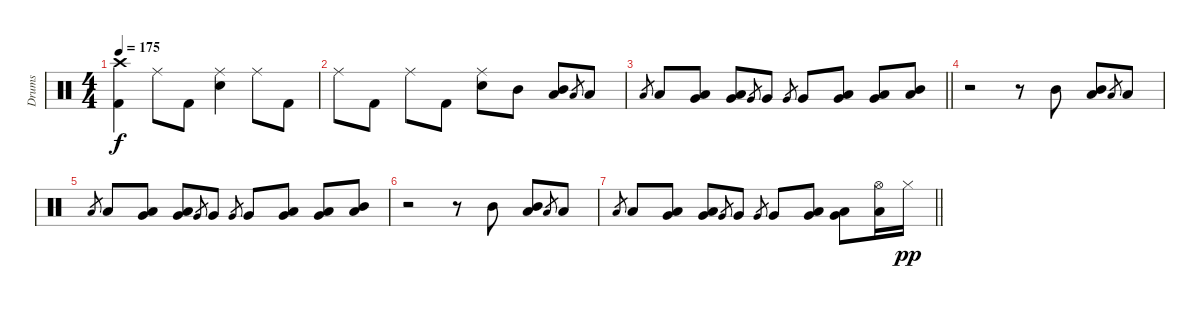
\track ("Drums" "Drums") {instrument percussion}
\staff {score}
\articulation defaults
\ts (4 4)
\tempo 175
\clef neutral
\ks c
("Crash high (hit)" "Kick (hit) 2").4{dy f} "Ride (middle)".8 "Kick (hit) 2".8 ("Ride (middle)" "Snare (hit) 2").4 "Ride (middle)".8 "Kick (hit) 2".8 |
"Ride (middle)".8 "Kick (hit) 2".8 "Ride (middle)".8 "Kick (hit) 2".8 ("Ride (middle)" "Snare (hit) 2").8 "Mid Tom (hit)".8 ("Mid Tom (hit)" "Low Tom (hit)").8 "Low Tom (hit)".8{gr} "Low Tom (hit)".8 |
\barLineRight lightlight "Low Tom (hit)".8{gr} "Low Tom (hit)".8
("Low Tom (hit)" "Very Low Tom (hit)").8 ("Low Tom (hit)" "Very Low Tom (hit)").8 "Very Low Tom (hit)".8{gr} "Very Low Tom (hit)".8 "Very Low Tom (hit)".8{gr} "Very Low Tom (hit)".8 ("Low Tom (hit)" "Very Low Tom (hit)").8 ("Low Tom (hit)" "Very Low Tom (hit)").8 ("Mid Tom (hit)" "Low Tom (hit)").8 |
r.2 r.8 "Mid Tom (hit)".8 ("Mid Tom (hit)" "Low Tom (hit)").8 "Low Tom (hit)".8{gr} "Low Tom (hit)".8 |
"Low Tom (hit)".8{gr} "Low Tom (hit)".8 ("Low Tom (hit)" "Very Low Tom (hit)").8 ("Low Tom (hit)" "Very Low Tom (hit)").8 "Very Low Tom (hit)".8{gr} "Very Low Tom (hit)".8 "Very Low Tom (hit)".8{gr} "Very Low Tom (hit)".8 ("Low Tom (hit)" "Very Low Tom (hit)").8 ("Low Tom (hit)" "Very Low Tom (hit)").8 ("Mid Tom (hit)" "Low Tom (hit)").8 |
r.2 r.8 "Mid Tom (hit)".8 ("Mid Tom (hit)" "Low Tom (hit)").8 "Low Tom (hit)".8{gr} "Low Tom (hit)".8 |
\barLineRight lightlight "Low Tom (hit)".8{gr} "Low Tom (hit)".8
("Low Tom (hit)" "Very Low Tom (hit)").8 ("Low Tom (hit)" "Very Low Tom (hit)").8 "Very Low Tom (hit)".8{gr} "Very Low Tom (hit)".8 "Very Low Tom (hit)".8{gr} "Very Low Tom (hit)".8 ("Low Tom (hit)" "Very Low Tom (hit)").8 ("Low Tom (hit)" "Very Low Tom (hit)").8 ("Hi-Hat (open)" "Low Tom (hit)").16 "Hi-Hat (closed)".16{dy pp}
